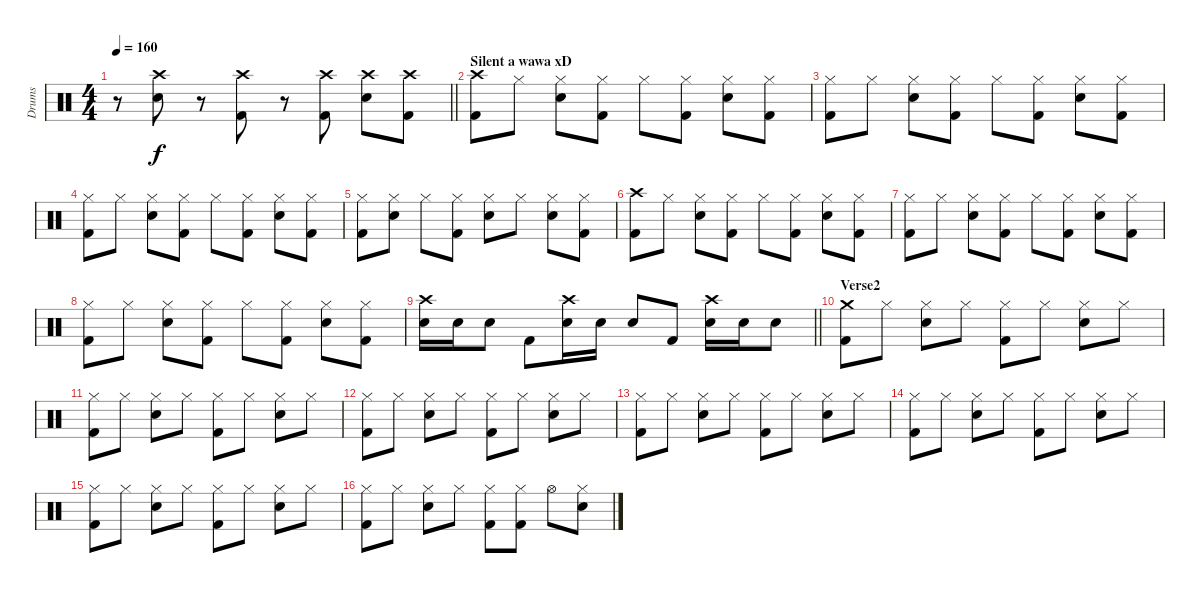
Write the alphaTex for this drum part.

\track ("Drums" "Drums") {instrument percussion}
\staff {score}
\articulation defaults
\ts (4 4)
\tempo 160
\clef neutral
\barLineRight lightlight
\ks c
r.8{dy f} ("Crash high (hit)" "Electric Snare (hit)").8 r.8 ("Crash high (hit)" "Kick (hit) 2").8 r.8 ("Crash high (hit)" "Kick (hit) 2").8 ("Crash high (hit)" "Electric Snare (hit)").8 ("Crash high (hit)" "Kick (hit) 2").8 |
\section ("" "Silent a wawa xD")
("Crash high (hit)" "Kick (hit) 2").8 "Hi-Hat (closed)".8 ("Hi-Hat (closed)" "Electric Snare (hit)").8 ("Hi-Hat (closed)" "Kick (hit) 2").8 "Hi-Hat (closed)".8 ("Hi-Hat (closed)" "Kick (hit) 2").8 ("Hi-Hat (closed)" "Electric Snare (hit)").8 ("Hi-Hat (closed)" "Kick (hit) 2").8 |
("Hi-Hat (closed)" "Kick (hit) 2").8 "Hi-Hat (closed)".8 ("Hi-Hat (closed)" "Electric Snare (hit)").8 ("Hi-Hat (closed)" "Kick (hit) 2").8 "Hi-Hat (closed)".8 ("Hi-Hat (closed)" "Kick (hit) 2").8 ("Hi-Hat (closed)" "Electric Snare (hit)").8 ("Hi-Hat (closed)" "Kick (hit) 2").8 |
("Hi-Hat (closed)" "Kick (hit) 2").8 "Hi-Hat (closed)".8 ("Hi-Hat (closed)" "Electric Snare (hit)").8 ("Hi-Hat (closed)" "Kick (hit) 2").8 "Hi-Hat (closed)".8 ("Hi-Hat (closed)" "Kick (hit) 2").8 ("Hi-Hat (closed)" "Electric Snare (hit)").8 ("Hi-Hat (closed)" "Kick (hit) 2").8 |
("Hi-Hat (closed)" "Kick (hit) 2").8 ("Hi-Hat (closed)" "Electric Snare (hit)").8 "Hi-Hat (closed)".8 ("Hi-Hat (closed)" "Kick (hit) 2").8 ("Hi-Hat (closed)" "Electric Snare (hit)").8 "Hi-Hat (closed)".8 ("Hi-Hat (closed)" "Electric Snare (hit)").8 ("Hi-Hat (closed)" "Kick (hit) 2").8 |
("Crash high (hit)" "Kick (hit) 2").8 "Hi-Hat (closed)".8 ("Hi-Hat (closed)" "Electric Snare (hit)").8 ("Hi-Hat (closed)" "Kick (hit) 2").8 "Hi-Hat (closed)".8 ("Hi-Hat (closed)" "Kick (hit) 2").8 ("Hi-Hat (closed)" "Electric Snare (hit)").8 ("Hi-Hat (closed)" "Kick (hit) 2").8 |
("Hi-Hat (closed)" "Kick (hit) 2").8 "Hi-Hat (closed)".8 ("Hi-Hat (closed)" "Electric Snare (hit)").8 ("Hi-Hat (closed)" "Kick (hit) 2").8 "Hi-Hat (closed)".8 ("Hi-Hat (closed)" "Kick (hit) 2").8 ("Hi-Hat (closed)" "Electric Snare (hit)").8 ("Hi-Hat (closed)" "Kick (hit) 2").8 |
("Hi-Hat (closed)" "Kick (hit) 2").8 "Hi-Hat (closed)".8 ("Hi-Hat (closed)" "Electric Snare (hit)").8 ("Hi-Hat (closed)" "Kick (hit) 2").8 "Hi-Hat (closed)".8 ("Hi-Hat (closed)" "Kick (hit) 2").8 ("Hi-Hat (closed)" "Electric Snare (hit)").8 ("Hi-Hat (closed)" "Kick (hit) 2").8 |
\barLineRight lightlight
("Crash high (hit)" "Electric Snare (hit)").16 "Electric Snare (hit)".16 "Electric Snare (hit)".8 "Kick (hit) 2".8 ("Crash high (hit)" "Electric Snare (hit)").16 "Electric Snare (hit)".16 "Electric Snare (hit)".8 "Kick (hit) 2".8 ("Crash high (hit)" "Electric Snare (hit)").16 "Electric Snare (hit)".16 "Electric Snare (hit)".8 |
\section ("" "Verse2")
("Crash medium (hit)" "Kick (hit) 2").8 "Hi-Hat (closed)".8 ("Hi-Hat (closed)" "Electric Snare (hit)").8 "Hi-Hat (closed)".8 ("Hi-Hat (closed)" "Kick (hit) 2").8 "Hi-Hat (closed)".8 ("Hi-Hat (closed)" "Electric Snare (hit)").8 "Hi-Hat (closed)".8 |
("Hi-Hat (closed)" "Kick (hit) 2").8 "Hi-Hat (closed)".8 ("Hi-Hat (closed)" "Electric Snare (hit)").8 "Hi-Hat (closed)".8 ("Hi-Hat (closed)" "Kick (hit) 2").8 "Hi-Hat (closed)".8 ("Hi-Hat (closed)" "Electric Snare (hit)").8 "Hi-Hat (closed)".8 |
("Hi-Hat (closed)" "Kick (hit) 2").8 "Hi-Hat (closed)".8 ("Hi-Hat (closed)" "Electric Snare (hit)").8 "Hi-Hat (closed)".8 ("Hi-Hat (closed)" "Kick (hit) 2").8 "Hi-Hat (closed)".8 ("Hi-Hat (closed)" "Electric Snare (hit)").8 "Hi-Hat (closed)".8 |
("Hi-Hat (closed)" "Kick (hit) 2").8 "Hi-Hat (closed)".8 ("Hi-Hat (closed)" "Electric Snare (hit)").8 "Hi-Hat (closed)".8 ("Hi-Hat (closed)" "Kick (hit) 2").8 "Hi-Hat (closed)".8 ("Hi-Hat (closed)" "Electric Snare (hit)").8 "Hi-Hat (closed)".8 |
("Hi-Hat (closed)" "Kick (hit) 2").8 "Hi-Hat (closed)".8 ("Hi-Hat (closed)" "Electric Snare (hit)").8 "Hi-Hat (closed)".8 ("Hi-Hat (closed)" "Kick (hit) 2").8 "Hi-Hat (closed)".8 ("Hi-Hat (closed)" "Electric Snare (hit)").8 "Hi-Hat (closed)".8 |
("Hi-Hat (closed)" "Kick (hit) 2").8 "Hi-Hat (closed)".8 ("Hi-Hat (closed)" "Electric Snare (hit)").8 "Hi-Hat (closed)".8 ("Hi-Hat (closed)" "Kick (hit) 2").8 "Hi-Hat (closed)".8 ("Hi-Hat (closed)" "Electric Snare (hit)").8 "Hi-Hat (closed)".8 |
("Hi-Hat (closed)" "Kick (hit) 2").8 "Hi-Hat (closed)".8 ("Hi-Hat (closed)" "Electric Snare (hit)").8 "Hi-Hat (closed)".8 ("Hi-Hat (closed)" "Kick (hit) 2").8 ("Hi-Hat (closed)" "Kick (hit) 2").8 "Hi-Hat (open)".8 ("Hi-Hat (closed)" "Electric Snare (hit)").8
